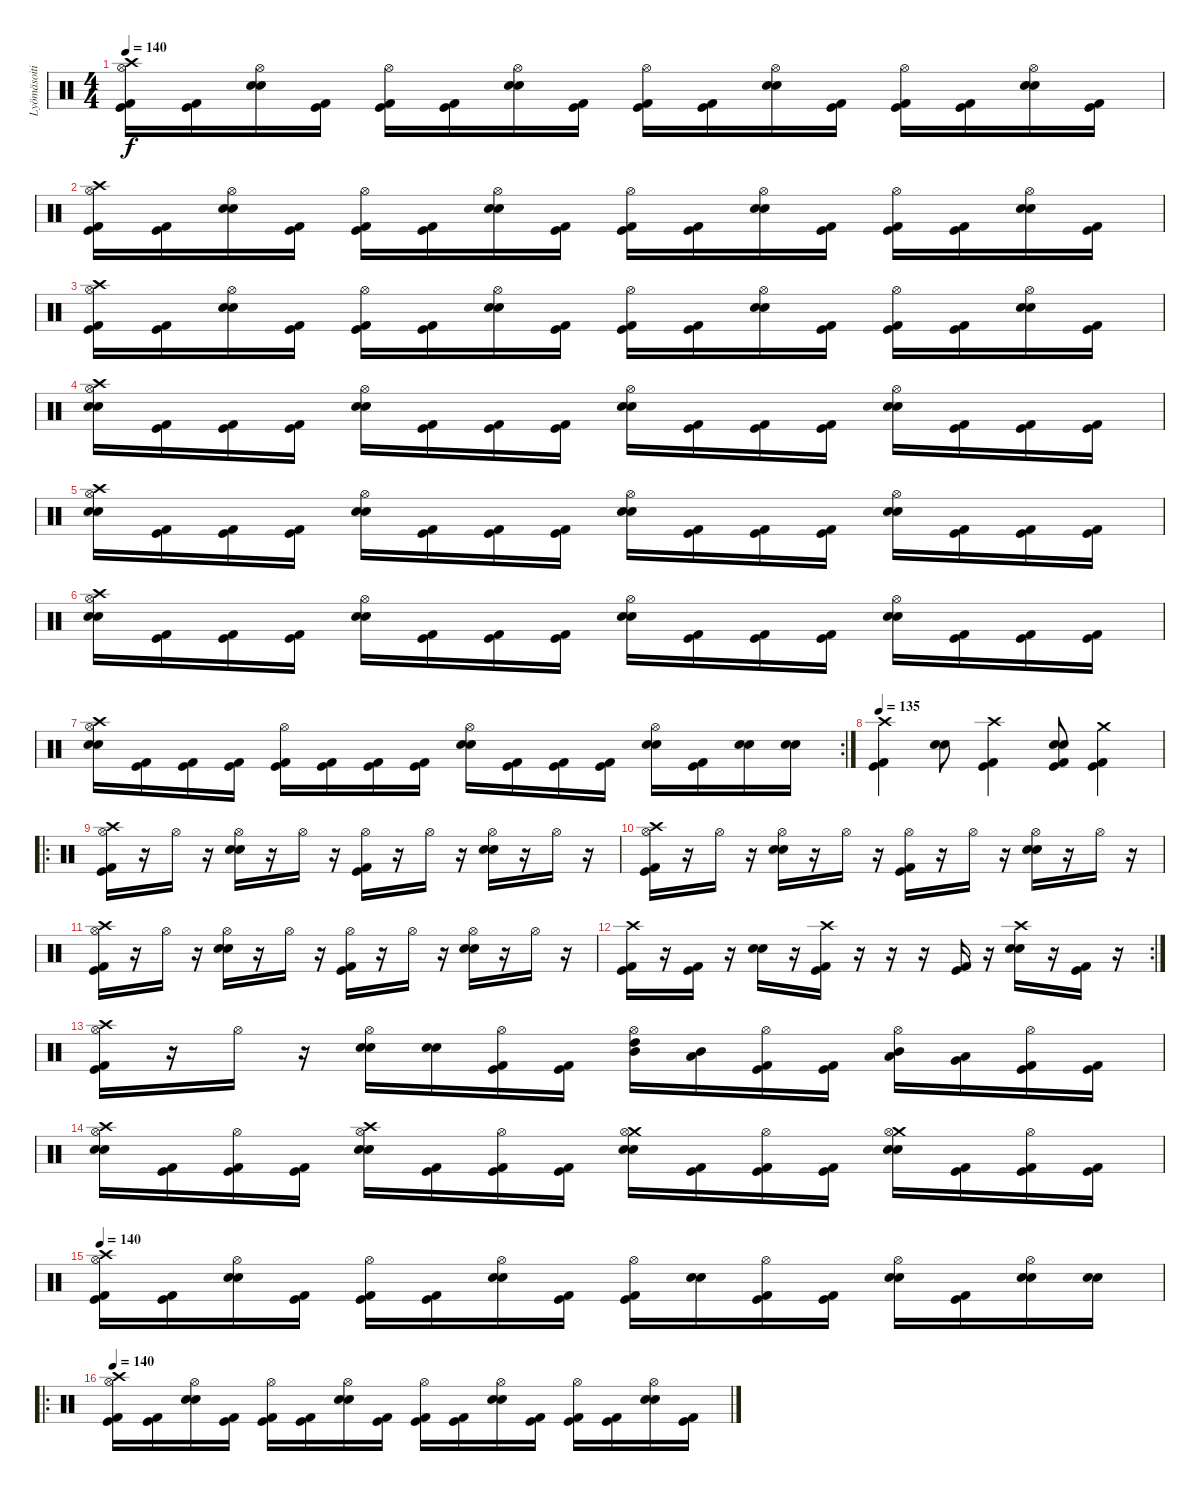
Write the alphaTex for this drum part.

\track ("Lyömäsoitin" "Lyömäsoiti") {instrument percussion}
\staff {score}
\articulation defaults
\ts (4 4)
\tempo 140
\clef neutral
\ks c
("Crash high (hit)" "Hi-Hat (open)" "Kick (hit) 2" "Kick (hit)").16{dy f} ("Kick (hit) 2" "Kick (hit)").16 ("Snare (hit) 2" "Hi-Hat (open)" "Electric Snare (hit)").16 ("Kick (hit) 2" "Kick (hit)").16 ("Hi-Hat (open)" "Kick (hit) 2" "Kick (hit)").16 ("Kick (hit) 2" "Kick (hit)").16 ("Snare (hit) 2" "Hi-Hat (open)" "Electric Snare (hit)").16 ("Kick (hit) 2" "Kick (hit)").16 ("Hi-Hat (open)" "Kick (hit) 2" "Kick (hit)").16 ("Kick (hit) 2" "Kick (hit)").16 ("Snare (hit) 2" "Hi-Hat (open)" "Electric Snare (hit)").16 ("Kick (hit) 2" "Kick (hit)").16 ("Hi-Hat (open)" "Kick (hit) 2" "Kick (hit)").16 ("Kick (hit) 2" "Kick (hit)").16 ("Snare (hit) 2" "Hi-Hat (open)" "Electric Snare (hit)").16 ("Kick (hit) 2" "Kick (hit)").16 |
("Crash high (hit)" "Hi-Hat (open)" "Kick (hit) 2" "Kick (hit)").16 ("Kick (hit) 2" "Kick (hit)").16 ("Snare (hit) 2" "Hi-Hat (open)" "Electric Snare (hit)").16 ("Kick (hit) 2" "Kick (hit)").16 ("Hi-Hat (open)" "Kick (hit) 2" "Kick (hit)").16 ("Kick (hit) 2" "Kick (hit)").16 ("Snare (hit) 2" "Hi-Hat (open)" "Electric Snare (hit)").16 ("Kick (hit) 2" "Kick (hit)").16 ("Hi-Hat (open)" "Kick (hit) 2" "Kick (hit)").16 ("Kick (hit) 2" "Kick (hit)").16 ("Snare (hit) 2" "Hi-Hat (open)" "Electric Snare (hit)").16 ("Kick (hit) 2" "Kick (hit)").16 ("Hi-Hat (open)" "Kick (hit) 2" "Kick (hit)").16 ("Kick (hit) 2" "Kick (hit)").16 ("Snare (hit) 2" "Hi-Hat (open)" "Electric Snare (hit)").16 ("Kick (hit) 2" "Kick (hit)").16 |
("Crash high (hit)" "Hi-Hat (open)" "Kick (hit) 2" "Kick (hit)").16 ("Kick (hit) 2" "Kick (hit)").16 ("Snare (hit) 2" "Hi-Hat (open)" "Electric Snare (hit)").16 ("Kick (hit) 2" "Kick (hit)").16 ("Hi-Hat (open)" "Kick (hit) 2" "Kick (hit)").16 ("Kick (hit) 2" "Kick (hit)").16 ("Snare (hit) 2" "Hi-Hat (open)" "Electric Snare (hit)").16 ("Kick (hit) 2" "Kick (hit)").16 ("Hi-Hat (open)" "Kick (hit) 2" "Kick (hit)").16 ("Kick (hit) 2" "Kick (hit)").16 ("Snare (hit) 2" "Hi-Hat (open)" "Electric Snare (hit)").16 ("Kick (hit) 2" "Kick (hit)").16 ("Hi-Hat (open)" "Kick (hit) 2" "Kick (hit)").16 ("Kick (hit) 2" "Kick (hit)").16 ("Snare (hit) 2" "Hi-Hat (open)" "Electric Snare (hit)").16 ("Kick (hit) 2" "Kick (hit)").16 |
("Crash high (hit)" "Hi-Hat (open)" "Snare (hit) 2" "Electric Snare (hit)").16 ("Kick (hit) 2" "Kick (hit)").16 ("Kick (hit) 2" "Kick (hit)").16 ("Kick (hit) 2" "Kick (hit)").16 ("Hi-Hat (open)" "Snare (hit) 2" "Electric Snare (hit)").16 ("Kick (hit) 2" "Kick (hit)").16 ("Kick (hit) 2" "Kick (hit)").16 ("Kick (hit) 2" "Kick (hit)").16 ("Hi-Hat (open)" "Snare (hit) 2" "Electric Snare (hit)").16 ("Kick (hit) 2" "Kick (hit)").16 ("Kick (hit) 2" "Kick (hit)").16 ("Kick (hit) 2" "Kick (hit)").16 ("Hi-Hat (open)" "Snare (hit) 2" "Electric Snare (hit)").16 ("Kick (hit) 2" "Kick (hit)").16 ("Kick (hit) 2" "Kick (hit)").16 ("Kick (hit) 2" "Kick (hit)").16 |
("Crash high (hit)" "Hi-Hat (open)" "Snare (hit) 2" "Electric Snare (hit)").16 ("Kick (hit) 2" "Kick (hit)").16 ("Kick (hit) 2" "Kick (hit)").16 ("Kick (hit) 2" "Kick (hit)").16 ("Hi-Hat (open)" "Snare (hit) 2" "Electric Snare (hit)").16 ("Kick (hit) 2" "Kick (hit)").16 ("Kick (hit) 2" "Kick (hit)").16 ("Kick (hit) 2" "Kick (hit)").16 ("Hi-Hat (open)" "Snare (hit) 2" "Electric Snare (hit)").16 ("Kick (hit) 2" "Kick (hit)").16 ("Kick (hit) 2" "Kick (hit)").16 ("Kick (hit) 2" "Kick (hit)").16 ("Hi-Hat (open)" "Snare (hit) 2" "Electric Snare (hit)").16 ("Kick (hit) 2" "Kick (hit)").16 ("Kick (hit) 2" "Kick (hit)").16 ("Kick (hit) 2" "Kick (hit)").16 |
("Crash high (hit)" "Hi-Hat (open)" "Snare (hit) 2" "Electric Snare (hit)").16 ("Kick (hit) 2" "Kick (hit)").16 ("Kick (hit) 2" "Kick (hit)").16 ("Kick (hit) 2" "Kick (hit)").16 ("Hi-Hat (open)" "Snare (hit) 2" "Electric Snare (hit)").16 ("Kick (hit) 2" "Kick (hit)").16 ("Kick (hit) 2" "Kick (hit)").16 ("Kick (hit) 2" "Kick (hit)").16 ("Hi-Hat (open)" "Snare (hit) 2" "Electric Snare (hit)").16 ("Kick (hit) 2" "Kick (hit)").16 ("Kick (hit) 2" "Kick (hit)").16 ("Kick (hit) 2" "Kick (hit)").16 ("Hi-Hat (open)" "Snare (hit) 2" "Electric Snare (hit)").16 ("Kick (hit) 2" "Kick (hit)").16 ("Kick (hit) 2" "Kick (hit)").16 ("Kick (hit) 2" "Kick (hit)").16 |
\rc 2
("Crash high (hit)" "Hi-Hat (open)" "Electric Snare (hit)" "Snare (hit) 2").16 ("Kick (hit) 2" "Kick (hit)").16 ("Kick (hit) 2" "Kick (hit)").16 ("Kick (hit) 2" "Kick (hit)").16 ("Hi-Hat (open)" "Kick (hit) 2" "Kick (hit)").16 ("Kick (hit) 2" "Kick (hit)").16 ("Kick (hit) 2" "Kick (hit)").16 ("Kick (hit) 2" "Kick (hit)").16 ("Hi-Hat (open)" "Electric Snare (hit)" "Snare (hit) 2").16 ("Kick (hit) 2" "Kick (hit)").16 ("Kick (hit) 2" "Kick (hit)").16 ("Kick (hit) 2" "Kick (hit)").16 ("Hi-Hat (open)" "Snare (hit) 2" "Snare (hit) 2").16 ("Kick (hit) 2" "Kick (hit)").16 ("Snare (hit) 2" "Electric Snare (hit)").16 ("Electric Snare (hit)" "Snare (hit) 2").16 |
\tempo 135
("Crash high (hit)" "Kick (hit) 2" "Kick (hit)").4 ("Electric Snare (hit)" "Snare (hit) 2").8 ("Crash high (hit)" "Kick (hit)" "Kick (hit) 2").4 ("Electric Snare (hit)" "Snare (hit) 2" "Kick (hit) 2" "Kick (hit)").8 ("Crash medium (hit)" "Kick (hit) 2" "Kick (hit)").4 |
\ro
("Crash high (hit)" "Hi-Hat (open)" "Kick (hit) 2" "Kick (hit)").16 r.16 "Hi-Hat (open)".16 r.16 ("Hi-Hat (open)" "Electric Snare (hit)" "Snare (hit) 2").16 r.16 "Hi-Hat (open)".16 r.16 ("Hi-Hat (open)" "Kick (hit) 2" "Kick (hit)").16 r.16 "Hi-Hat (open)".16 r.16 ("Hi-Hat (open)" "Electric Snare (hit)" "Snare (hit) 2").16 r.16 "Hi-Hat (open)".16 r.16 |
("Crash high (hit)" "Hi-Hat (open)" "Kick (hit) 2" "Kick (hit)").16 r.16 "Hi-Hat (open)".16 r.16 ("Hi-Hat (open)" "Electric Snare (hit)" "Snare (hit) 2").16 r.16 "Hi-Hat (open)".16 r.16 ("Hi-Hat (open)" "Kick (hit) 2" "Kick (hit)").16 r.16 "Hi-Hat (open)".16 r.16 ("Hi-Hat (open)" "Electric Snare (hit)" "Snare (hit) 2").16 r.16 "Hi-Hat (open)".16 r.16 |
("Crash high (hit)" "Hi-Hat (open)" "Kick (hit) 2" "Kick (hit)").16 r.16 "Hi-Hat (open)".16 r.16 ("Hi-Hat (open)" "Electric Snare (hit)" "Snare (hit) 2").16 r.16 "Hi-Hat (open)".16 r.16 ("Hi-Hat (open)" "Kick (hit) 2" "Kick (hit)").16 r.16 "Hi-Hat (open)".16 r.16 ("Hi-Hat (open)" "Electric Snare (hit)" "Snare (hit) 2").16 r.16 "Hi-Hat (open)".16 r.16 |
\rc 2
("Crash high (hit)" "Kick (hit) 2" "Kick (hit)").16 r.16 ("Kick (hit) 2" "Kick (hit)").16 r.16 ("Electric Snare (hit)" "Snare (hit) 2").16 r.16 ("Crash high (hit)" "Kick (hit) 2" "Kick (hit)").16 r.16 r.16 r.16 ("Kick (hit) 2" "Kick (hit)").16 r.16 ("Crash high (hit)" "Electric Snare (hit)" "Snare (hit) 2").16 r.16 ("Kick (hit) 2" "Kick (hit)").16 r.16 |
("Crash high (hit)" "Hi-Hat (open)" "Kick (hit) 2" "Kick (hit)").16 r.16 "Hi-Hat (open)".16 r.16 ("Hi-Hat (open)" "Electric Snare (hit)" "Snare (hit) 2").16 ("Electric Snare (hit)" "Snare (hit) 2").16 ("Hi-Hat (open)" "Kick (hit) 2" "Kick (hit)").16 ("Kick (hit) 2" "Kick (hit)").16 ("Hi-Hat (open)" "High Tom (hit)" "Mid Tom (hit)").16 ("Mid Tom (hit)" "Low Tom (hit)").16 ("Hi-Hat (open)" "Kick (hit) 2" "Kick (hit)").16 ("Kick (hit) 2" "Kick (hit)").16 ("Hi-Hat (open)" "Mid Tom (hit)" "Low Tom (hit)").16 ("Low Tom (hit)" "Very Low Tom (hit)").16 ("Hi-Hat (open)" "Kick (hit) 2" "Kick (hit)").16 ("Kick (hit) 2" "Kick (hit)").16 |
("Crash high (hit)" "Hi-Hat (open)" "Snare (hit) 2" "Electric Snare (hit)").16 ("Kick (hit) 2" "Kick (hit)").16 ("Hi-Hat (open)" "Kick (hit) 2" "Kick (hit)").16 ("Kick (hit) 2" "Kick (hit)").16 ("Crash high (hit)" "Hi-Hat (open)" "Snare (hit) 2" "Electric Snare (hit)").16 ("Kick (hit) 2" "Kick (hit)").16 ("Hi-Hat (open)" "Kick (hit) 2" "Kick (hit)").16 ("Kick (hit) 2" "Kick (hit)").16 ("Crash medium (hit)" "Hi-Hat (open)" "Snare (hit) 2" "Electric Snare (hit)").16 ("Kick (hit) 2" "Kick (hit)").16 ("Hi-Hat (open)" "Kick (hit)" "Kick (hit) 2").16 ("Kick (hit) 2" "Kick (hit)").16 ("Crash medium (hit)" "Hi-Hat (open)" "Snare (hit) 2" "Electric Snare (hit)").16 ("Kick (hit)" "Kick (hit) 2").16 ("Hi-Hat (open)" "Kick (hit) 2" "Kick (hit)").16 ("Kick (hit) 2" "Kick (hit)").16 |
\tempo 140
("Hi-Hat (open)" "Crash high (hit)" "Kick (hit) 2" "Kick (hit)").16 ("Kick (hit) 2" "Kick (hit)").16 ("Hi-Hat (open)" "Electric Snare (hit)" "Snare (hit) 2").16 ("Kick (hit) 2" "Kick (hit)").16 ("Hi-Hat (open)" "Kick (hit) 2" "Kick (hit)").16 ("Kick (hit) 2" "Kick (hit)").16 ("Hi-Hat (open)" "Electric Snare (hit)" "Snare (hit) 2").16 ("Kick (hit) 2" "Kick (hit)").16 ("Hi-Hat (open)" "Kick (hit) 2" "Kick (hit)").16 ("Electric Snare (hit)" "Snare (hit) 2").16 ("Hi-Hat (open)" "Kick (hit) 2" "Kick (hit)").16 ("Kick (hit) 2" "Kick (hit)").16 ("Hi-Hat (open)" "Electric Snare (hit)" "Snare (hit) 2").16 ("Kick (hit)" "Kick (hit) 2").16 ("Hi-Hat (open)" "Snare (hit) 2" "Electric Snare (hit)").16 ("Snare (hit) 2" "Electric Snare (hit)").16 |
\ro
\tempo 140
("Crash high (hit)" "Hi-Hat (open)" "Kick (hit) 2" "Kick (hit)").16 ("Kick (hit) 2" "Kick (hit)").16 ("Snare (hit) 2" "Hi-Hat (open)" "Electric Snare (hit)").16 ("Kick (hit) 2" "Kick (hit)").16 ("Hi-Hat (open)" "Kick (hit) 2" "Kick (hit)").16 ("Kick (hit) 2" "Kick (hit)").16 ("Snare (hit) 2" "Hi-Hat (open)" "Electric Snare (hit)").16 ("Kick (hit) 2" "Kick (hit)").16 ("Hi-Hat (open)" "Kick (hit) 2" "Kick (hit)").16 ("Kick (hit) 2" "Kick (hit)").16 ("Snare (hit) 2" "Hi-Hat (open)" "Electric Snare (hit)").16 ("Kick (hit) 2" "Kick (hit)").16 ("Hi-Hat (open)" "Kick (hit) 2" "Kick (hit)").16 ("Kick (hit) 2" "Kick (hit)").16 ("Snare (hit) 2" "Hi-Hat (open)" "Electric Snare (hit)").16 ("Kick (hit) 2" "Kick (hit)").16
